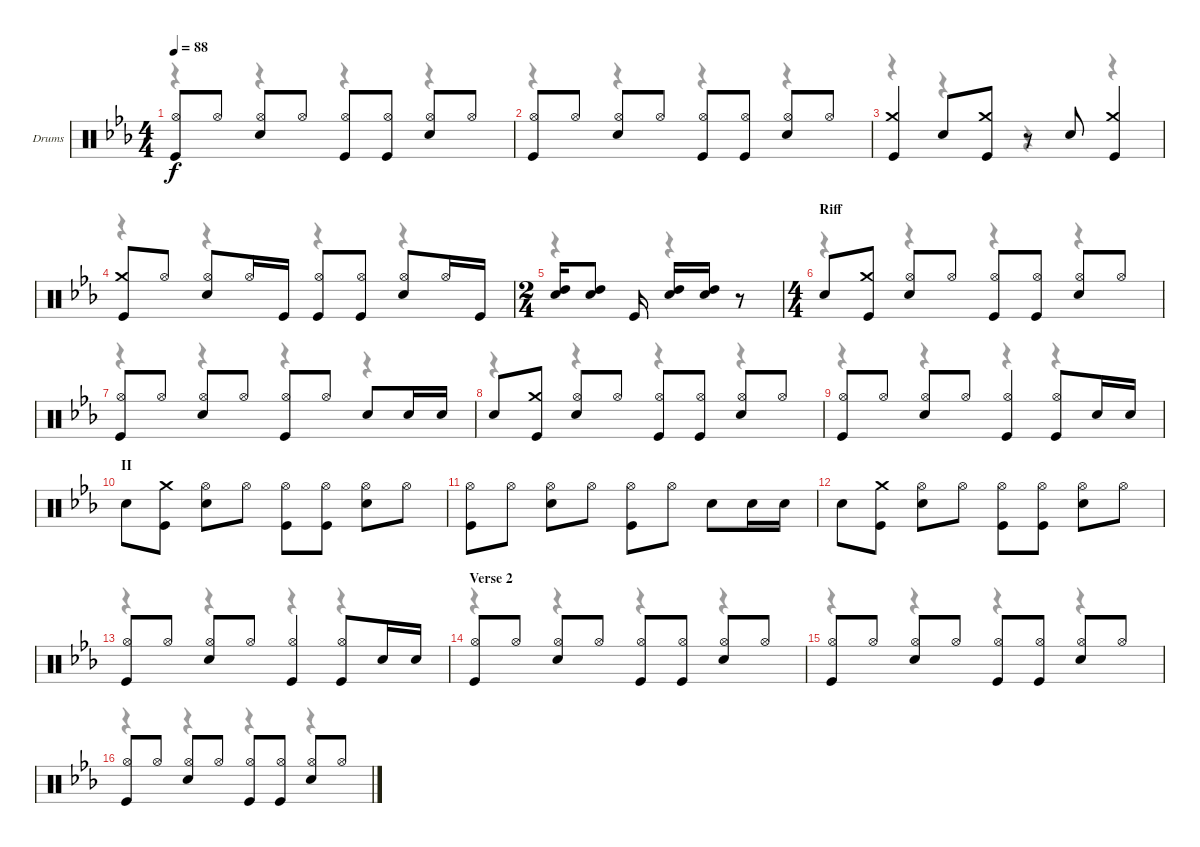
\bracketExtendMode groupsimilarinstruments
\firstSystemTrackNameOrientation horizontal
\otherSystemsTrackNameOrientation horizontal
\track ("Ian Paice - Drums" "Drums") {instrument percussion}
\staff {score}
\articulation defaults
\voice
\ts (4 4)
\tempo 88
\clef neutral
\ks cminor
("Hi-Hat (open)" "Kick (hit)").8{dy f} "Hi-Hat (open)".8 ("Hi-Hat (open)" "Snare (hit) 2").8 "Hi-Hat (open)".8 ("Hi-Hat (open)" "Kick (hit)").8 ("Hi-Hat (open)" "Kick (hit)").8 ("Hi-Hat (open)" "Snare (hit) 2").8 "Hi-Hat (open)".8 |
("Hi-Hat (open)" "Kick (hit)").8 "Hi-Hat (open)".8 ("Hi-Hat (open)" "Snare (hit) 2").8 "Hi-Hat (open)".8 ("Hi-Hat (open)" "Kick (hit)").8 ("Hi-Hat (open)" "Kick (hit)").8 ("Hi-Hat (open)" "Snare (hit) 2").8 "Hi-Hat (open)".8 |
("Crash medium (hit)" "Kick (hit)").4 "Snare (hit) 2".8 ("Crash medium (hit)" "Kick (hit)").8 r.8 "Snare (hit) 2".8 ("Crash medium (hit)" "Kick (hit)").4 |
("Crash medium (hit)" "Kick (hit)").8 "Hi-Hat (open)".8 ("Hi-Hat (open)" "Snare (hit) 2").8 "Hi-Hat (open)".16 "Kick (hit)".16 ("Hi-Hat (open)" "Kick (hit)").8 ("Hi-Hat (open)" "Kick (hit)").8 ("Hi-Hat (open)" "Snare (hit) 2").8 "Hi-Hat (open)".16 "Kick (hit)".16 |
\ts (2 4)
\beaming (8 1 1 1 1)
("Snare (hit) 2" "High Tom (hit)").16 ("Snare (hit) 2" "High Tom (hit)").8 "Kick (hit)".16 ("Snare (hit) 2" "High Tom (hit)").16 ("Snare (hit) 2" "High Tom (hit)").16 r.8 |
\ts (4 4)
\beaming (8 2 2 2 2)
\section ("" "Riff")
"Snare (hit) 2".8 ("Crash medium (hit)" "Kick (hit)").8 ("Hi-Hat (open)" "Snare (hit) 2").8 "Hi-Hat (open)".8 ("Hi-Hat (open)" "Kick (hit)").8 ("Hi-Hat (open)" "Kick (hit)").8 ("Hi-Hat (open)" "Snare (hit) 2").8 "Hi-Hat (open)".8 |
("Hi-Hat (open)" "Kick (hit)").8 "Hi-Hat (open)".8 ("Hi-Hat (open)" "Snare (hit) 2").8 "Hi-Hat (open)".8 ("Hi-Hat (open)" "Kick (hit)").8 "Hi-Hat (open)".8 "Snare (hit) 2".8 "Snare (hit) 2".16 "Snare (hit) 2".16 |
"Snare (hit) 2".8 ("Crash medium (hit)" "Kick (hit)").8 ("Hi-Hat (open)" "Snare (hit) 2").8 "Hi-Hat (open)".8 ("Hi-Hat (open)" "Kick (hit)").8 ("Hi-Hat (open)" "Kick (hit)").8 ("Hi-Hat (open)" "Snare (hit) 2").8 "Hi-Hat (open)".8 |
("Hi-Hat (open)" "Kick (hit)").8 "Hi-Hat (open)".8 ("Hi-Hat (open)" "Snare (hit) 2").8 "Hi-Hat (open)".8 ("Hi-Hat (open)" "Kick (hit)").4 ("Hi-Hat (open)" "Kick (hit)").8 "Snare (hit) 2".16 "Snare (hit) 2".16 |
\section ("" "II")
"Snare (hit) 2".8 ("Crash medium (hit)" "Kick (hit)").8 ("Hi-Hat (open)" "Snare (hit) 2").8 "Hi-Hat (open)".8 ("Hi-Hat (open)" "Kick (hit)").8 ("Hi-Hat (open)" "Kick (hit)").8 ("Hi-Hat (open)" "Snare (hit) 2").8 "Hi-Hat (open)".8 |
("Hi-Hat (open)" "Kick (hit)").8 "Hi-Hat (open)".8 ("Hi-Hat (open)" "Snare (hit) 2").8 "Hi-Hat (open)".8 ("Hi-Hat (open)" "Kick (hit)").8 "Hi-Hat (open)".8 "Snare (hit) 2".8 "Snare (hit) 2".16 "Snare (hit) 2".16 |
"Snare (hit) 2".8 ("Crash medium (hit)" "Kick (hit)").8 ("Hi-Hat (open)" "Snare (hit) 2").8 "Hi-Hat (open)".8 ("Hi-Hat (open)" "Kick (hit)").8 ("Hi-Hat (open)" "Kick (hit)").8 ("Hi-Hat (open)" "Snare (hit) 2").8 "Hi-Hat (open)".8 |
("Hi-Hat (open)" "Kick (hit)").8 "Hi-Hat (open)".8 ("Hi-Hat (open)" "Snare (hit) 2").8 "Hi-Hat (open)".8 ("Hi-Hat (open)" "Kick (hit)").4 ("Hi-Hat (open)" "Kick (hit)").8 "Snare (hit) 2".16 "Snare (hit) 2".16 |
\section ("" "Verse 2")
("Hi-Hat (open)" "Kick (hit)").8 "Hi-Hat (open)".8 ("Hi-Hat (open)" "Snare (hit) 2").8 "Hi-Hat (open)".8 ("Hi-Hat (open)" "Kick (hit)").8 ("Hi-Hat (open)" "Kick (hit)").8 ("Hi-Hat (open)" "Snare (hit) 2").8 "Hi-Hat (open)".8 |
("Hi-Hat (open)" "Kick (hit)").8 "Hi-Hat (open)".8 ("Hi-Hat (open)" "Snare (hit) 2").8 "Hi-Hat (open)".8 ("Hi-Hat (open)" "Kick (hit)").8 ("Hi-Hat (open)" "Kick (hit)").8 ("Hi-Hat (open)" "Snare (hit) 2").8 "Hi-Hat (open)".8 |
("Hi-Hat (open)" "Kick (hit)").8 "Hi-Hat (open)".8 ("Hi-Hat (open)" "Snare (hit) 2").8 "Hi-Hat (open)".8 ("Hi-Hat (open)" "Kick (hit)").8 ("Hi-Hat (open)" "Kick (hit)").8 ("Hi-Hat (open)" "Snare (hit) 2").8 "Hi-Hat (open)".8
\voice
\clef neutral
\ottava regular
\simile none
\ks cminor
r.4{dy mf} r.4 r.4 r.4 |
r.4 r.4 r.4 r.4 |
r.4 r.4 r.4 r.4 |
r.4 r.4 r.4 r.4 |
r.4 r.4 |
r.4 r.4 r.4 r.4 |
r.4 r.4 r.4 r.4 |
r.4 r.4 r.4 r.4 |
r.4 r.4 r.4 r.4 |
|
|
|
r.4{dy mf} r.4 r.4 r.4 |
r.4 r.4 r.4 r.4 |
r.4 r.4 r.4 r.4 |
r.4 r.4 r.4 r.4
